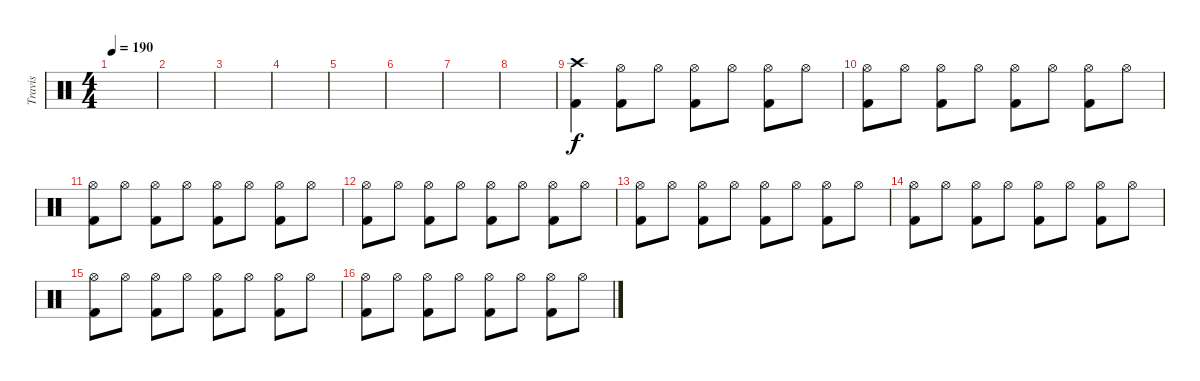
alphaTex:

\track ("Travis" "Travis") {instrument percussion}
\staff {score}
\articulation defaults
\ts (4 4)
\tempo 190
\clef neutral
\ks c
|
|
|
|
|
|
|
|
("Crash high (hit)" "Kick (hit) 2").4 ("Hi-Hat (open)" "Kick (hit) 2").8 "Hi-Hat (open)".8 ("Hi-Hat (open)" "Kick (hit) 2").8 "Hi-Hat (open)".8 ("Hi-Hat (open)" "Kick (hit) 2").8 "Hi-Hat (open)".8 |
("Hi-Hat (open)" "Kick (hit) 2").8 "Hi-Hat (open)".8 ("Hi-Hat (open)" "Kick (hit) 2").8 "Hi-Hat (open)".8 ("Hi-Hat (open)" "Kick (hit) 2").8 "Hi-Hat (open)".8 ("Hi-Hat (open)" "Kick (hit) 2").8 "Hi-Hat (open)".8 |
("Hi-Hat (open)" "Kick (hit) 2").8 "Hi-Hat (open)".8 ("Hi-Hat (open)" "Kick (hit) 2").8 "Hi-Hat (open)".8 ("Hi-Hat (open)" "Kick (hit) 2").8 "Hi-Hat (open)".8 ("Hi-Hat (open)" "Kick (hit) 2").8 "Hi-Hat (open)".8 |
("Hi-Hat (open)" "Kick (hit) 2").8 "Hi-Hat (open)".8 ("Hi-Hat (open)" "Kick (hit) 2").8 "Hi-Hat (open)".8 ("Hi-Hat (open)" "Kick (hit) 2").8 "Hi-Hat (open)".8 ("Hi-Hat (open)" "Kick (hit) 2").8 "Hi-Hat (open)".8 |
("Hi-Hat (open)" "Kick (hit) 2").8 "Hi-Hat (open)".8 ("Hi-Hat (open)" "Kick (hit) 2").8 "Hi-Hat (open)".8 ("Hi-Hat (open)" "Kick (hit) 2").8 "Hi-Hat (open)".8 ("Hi-Hat (open)" "Kick (hit) 2").8 "Hi-Hat (open)".8 |
("Hi-Hat (open)" "Kick (hit) 2").8 "Hi-Hat (open)".8 ("Hi-Hat (open)" "Kick (hit) 2").8 "Hi-Hat (open)".8 ("Hi-Hat (open)" "Kick (hit) 2").8 "Hi-Hat (open)".8 ("Hi-Hat (open)" "Kick (hit) 2").8 "Hi-Hat (open)".8 |
("Hi-Hat (open)" "Kick (hit) 2").8 "Hi-Hat (open)".8 ("Hi-Hat (open)" "Kick (hit) 2").8 "Hi-Hat (open)".8 ("Hi-Hat (open)" "Kick (hit) 2").8 "Hi-Hat (open)".8 ("Hi-Hat (open)" "Kick (hit) 2").8 "Hi-Hat (open)".8 |
("Hi-Hat (open)" "Kick (hit) 2").8 "Hi-Hat (open)".8 ("Hi-Hat (open)" "Kick (hit) 2").8 "Hi-Hat (open)".8 ("Hi-Hat (open)" "Kick (hit) 2").8 "Hi-Hat (open)".8 ("Hi-Hat (open)" "Kick (hit) 2").8 "Hi-Hat (open)".8
